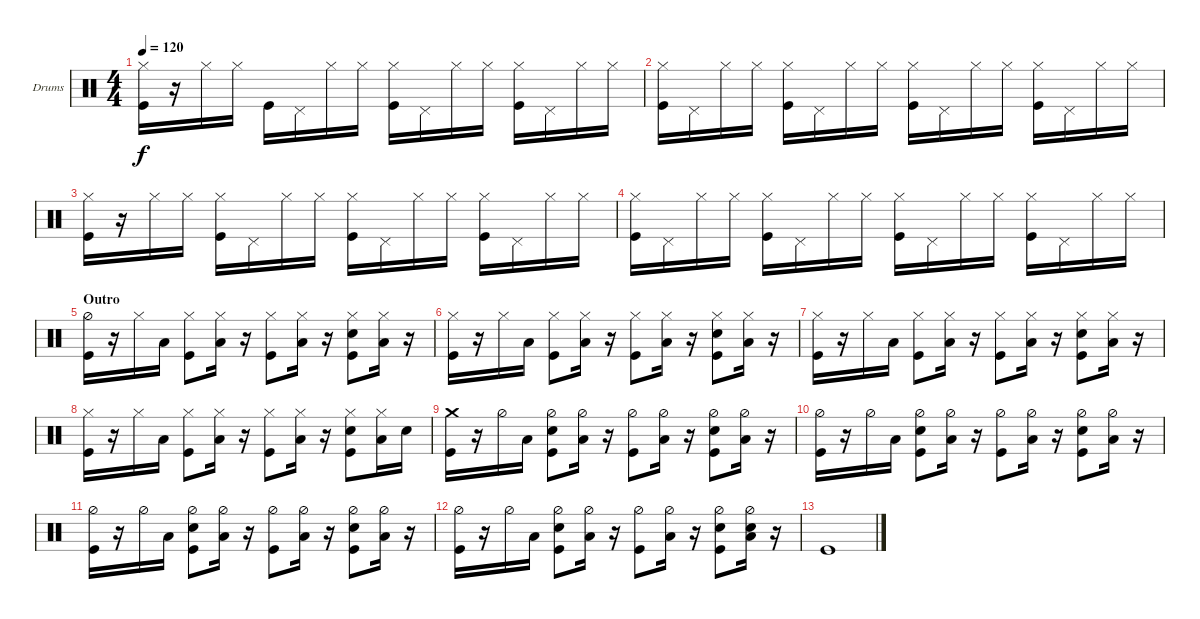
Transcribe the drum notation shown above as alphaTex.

\defaultSystemsLayout 4
\bracketExtendMode groupsimilarinstruments
\firstSystemTrackNameOrientation horizontal
\otherSystemsTrackNameOrientation horizontal
\track ("Drums" "Drums") {instrument percussion}
\staff {score}
\articulation defaults
\ts (4 4)
\tempo 120
\clef neutral
\ks c
("Hi-Hat (closed)" "Kick (hit)").16{dy f} r.16 "Hi-Hat (closed)".16 "Hi-Hat (closed)".16 "Kick (hit)".16 "Pedal Hi-Hat (hit)".16 "Hi-Hat (closed)".16 "Hi-Hat (closed)".16 ("Kick (hit)" "Hi-Hat (closed)").16 "Pedal Hi-Hat (hit)".16 "Hi-Hat (closed)".16 "Hi-Hat (closed)".16 ("Kick (hit)" "Hi-Hat (closed)").16 "Pedal Hi-Hat (hit)".16 "Hi-Hat (closed)".16 "Hi-Hat (closed)".16 |
("Hi-Hat (closed)" "Kick (hit)").16 "Pedal Hi-Hat (hit)".16 "Hi-Hat (closed)".16 "Hi-Hat (closed)".16 ("Kick (hit)" "Hi-Hat (closed)").16 "Pedal Hi-Hat (hit)".16 "Hi-Hat (closed)".16 "Hi-Hat (closed)".16 ("Kick (hit)" "Hi-Hat (closed)").16 "Pedal Hi-Hat (hit)".16 "Hi-Hat (closed)".16 "Hi-Hat (closed)".16 ("Kick (hit)" "Hi-Hat (closed)").16 "Pedal Hi-Hat (hit)".16 "Hi-Hat (closed)".16 "Hi-Hat (closed)".16 |
("Hi-Hat (closed)" "Kick (hit)").16 r.16 "Hi-Hat (closed)".16 "Hi-Hat (closed)".16 ("Kick (hit)" "Hi-Hat (closed)").16 "Pedal Hi-Hat (hit)".16 "Hi-Hat (closed)".16 "Hi-Hat (closed)".16 ("Kick (hit)" "Hi-Hat (closed)").16 "Pedal Hi-Hat (hit)".16 "Hi-Hat (closed)".16 "Hi-Hat (closed)".16 ("Kick (hit)" "Hi-Hat (closed)").16 "Pedal Hi-Hat (hit)".16 "Hi-Hat (closed)".16 "Hi-Hat (closed)".16 |
("Hi-Hat (closed)" "Kick (hit)").16 "Pedal Hi-Hat (hit)".16 "Hi-Hat (closed)".16 "Hi-Hat (closed)".16 ("Kick (hit)" "Hi-Hat (closed)").16 "Pedal Hi-Hat (hit)".16 "Hi-Hat (closed)".16 "Hi-Hat (closed)".16 ("Kick (hit)" "Hi-Hat (closed)").16 "Pedal Hi-Hat (hit)".16 "Hi-Hat (closed)".16 "Hi-Hat (closed)".16 ("Kick (hit)" "Hi-Hat (closed)").16 "Pedal Hi-Hat (hit)".16 "Hi-Hat (closed)".16 "Hi-Hat (closed)".16 |
\section ("" "Outro")
("Kick (hit)" "Hi-Hat (half)").16 r.16 "Hi-Hat (closed)".16 "Low Tom (hit)".16 ("Kick (hit)" "Hi-Hat (closed)").8 ("Low Tom (hit)" "Hi-Hat (closed)").16 r.16 ("Kick (hit)" "Hi-Hat (closed)").8 ("Low Tom (hit)" "Hi-Hat (closed)").16 r.16 ("Kick (hit)" "Snare (hit) 2" "Hi-Hat (closed)").8 ("Low Tom (hit)" "Hi-Hat (closed)").16 r.16 |
("Kick (hit)" "Hi-Hat (closed)").16 r.16 "Hi-Hat (closed)".16 "Low Tom (hit)".16 ("Kick (hit)" "Hi-Hat (closed)").8 ("Low Tom (hit)" "Hi-Hat (closed)").16 r.16 ("Kick (hit)" "Hi-Hat (closed)").8 ("Low Tom (hit)" "Hi-Hat (closed)").16 r.16 ("Kick (hit)" "Snare (hit) 2" "Hi-Hat (closed)").8 ("Low Tom (hit)" "Hi-Hat (closed)").16 r.16 |
("Kick (hit)" "Hi-Hat (closed)").16 r.16 "Hi-Hat (closed)".16 "Low Tom (hit)".16 ("Kick (hit)" "Hi-Hat (closed)").8 ("Low Tom (hit)" "Hi-Hat (closed)").16 r.16 ("Kick (hit)" "Hi-Hat (closed)").8 ("Low Tom (hit)" "Hi-Hat (closed)").16 r.16 ("Kick (hit)" "Snare (hit) 2" "Hi-Hat (closed)").8 ("Low Tom (hit)" "Hi-Hat (closed)").16 r.16 |
("Kick (hit)" "Hi-Hat (closed)").16 r.16 "Hi-Hat (closed)".16 "Low Tom (hit)".16 ("Kick (hit)" "Hi-Hat (closed)").8 ("Low Tom (hit)" "Hi-Hat (closed)").16 r.16 ("Kick (hit)" "Hi-Hat (closed)").8 ("Low Tom (hit)" "Hi-Hat (closed)").16 r.16 ("Kick (hit)" "Snare (hit) 2" "Hi-Hat (closed)").8 ("Low Tom (hit)" "Hi-Hat (closed)").16 "Snare (hit) 2".16 |
("Kick (hit)" "Crash medium (hit)").16 r.16 "Hi-Hat (half)".16 "Low Tom (hit)".16 ("Kick (hit)" "Snare (hit) 2" "Hi-Hat (half)").8 ("Low Tom (hit)" "Hi-Hat (half)").16 r.16 ("Kick (hit)" "Hi-Hat (half)").8 ("Low Tom (hit)" "Hi-Hat (half)").16 r.16 ("Kick (hit)" "Snare (hit) 2" "Hi-Hat (half)").8 ("Low Tom (hit)" "Hi-Hat (half)").16 r.16 |
("Kick (hit)" "Hi-Hat (half)").16 r.16 "Hi-Hat (half)".16 "Low Tom (hit)".16 ("Kick (hit)" "Snare (hit) 2" "Hi-Hat (half)").8 ("Low Tom (hit)" "Hi-Hat (half)").16 r.16 ("Kick (hit)" "Hi-Hat (half)").8 ("Low Tom (hit)" "Hi-Hat (half)").16 r.16 ("Kick (hit)" "Snare (hit) 2" "Hi-Hat (half)").8 ("Low Tom (hit)" "Hi-Hat (half)").16 r.16 |
("Kick (hit)" "Hi-Hat (half)").16 r.16 "Hi-Hat (half)".16 "Low Tom (hit)".16 ("Kick (hit)" "Snare (hit) 2" "Hi-Hat (half)").8 ("Low Tom (hit)" "Hi-Hat (half)").16 r.16 ("Kick (hit)" "Hi-Hat (half)").8 ("Low Tom (hit)" "Hi-Hat (half)").16 r.16 ("Kick (hit)" "Snare (hit) 2" "Hi-Hat (half)").8 ("Low Tom (hit)" "Hi-Hat (half)").16 r.16 |
("Kick (hit)" "Hi-Hat (half)").16 r.16 "Hi-Hat (half)".16 "Low Tom (hit)".16 ("Kick (hit)" "Snare (hit) 2" "Hi-Hat (half)").8 ("Low Tom (hit)" "Hi-Hat (half)").16 r.16 ("Kick (hit)" "Hi-Hat (half)").8 ("Low Tom (hit)" "Hi-Hat (half)").16 r.16 ("Kick (hit)" "Snare (hit) 2" "Hi-Hat (half)").8 ("Low Tom (hit)" "Hi-Hat (half)" "Snare (hit) 2").16 r.16 |
"Kick (hit)".1
